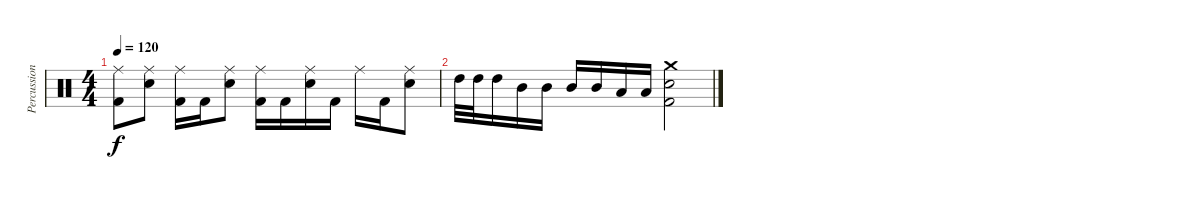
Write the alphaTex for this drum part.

\track ("Percussion" "Percussion") {instrument percussion}
\staff {score}
\articulation defaults
\ts (4 4)
\tempo 120
\clef neutral
\ks c
("Ride (middle)" "Kick (hit) 2").8{dy f} ("Ride (middle)" "Electric Snare (hit)").8 ("Ride (middle)" "Kick (hit) 2").16 "Kick (hit) 2".16 ("Ride (middle)" "Electric Snare (hit)").8 ("Ride (middle)" "Kick (hit) 2").16 "Kick (hit) 2".16 ("Ride (middle)" "Electric Snare (hit)").16 "Kick (hit) 2".16 "Ride (middle)".16 "Kick (hit) 2".16 ("Ride (middle)" "Electric Snare (hit)").8 |
"High Tom (hit)".32 "High Tom (hit)".32 "High Tom (hit)".16 "Mid Tom (hit)".16 "Mid Tom (hit)".16 "Mid Tom (hit)".16 "Mid Tom (hit)".16 "Low Tom (hit)".16 "Low Tom (hit)".16 ("Crash medium (hit)" "Electric Snare (hit)" "Kick (hit) 2").2
